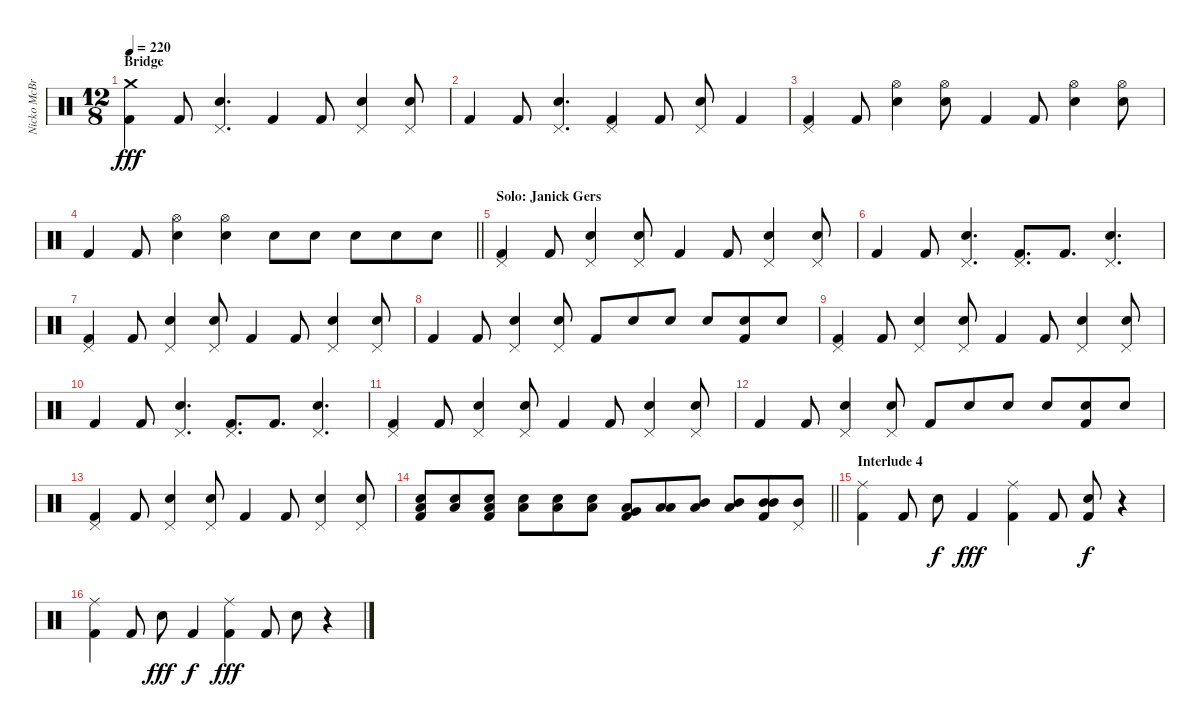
\track ("Nicko McBrain" "Nicko McBr") {instrument percussion}
\staff {score}
\articulation defaults
\ts (12 8)
\section ("" "Bridge")
\tempo 220
\clef neutral
\ks c
("Crash medium (hit)" "Kick (hit) 2").4{dy fff} "Kick (hit) 2".8 ("Snare (hit) 2" "Pedal Hi-Hat (hit)").4{d} "Kick (hit) 2".4 "Kick (hit) 2".8 ("Snare (hit) 2" "Pedal Hi-Hat (hit)").4 ("Snare (hit) 2" "Pedal Hi-Hat (hit)").8 |
"Kick (hit) 2".4 "Kick (hit) 2".8 ("Snare (hit) 2" "Pedal Hi-Hat (hit)").4{d} ("Pedal Hi-Hat (hit)" "Kick (hit) 2").4 "Kick (hit) 2".8 ("Snare (hit) 2" "Pedal Hi-Hat (hit)").8 "Kick (hit) 2".4 |
("Pedal Hi-Hat (hit)" "Kick (hit) 2").4 "Kick (hit) 2".8 ("Snare (hit) 2" "Hi-Hat (open)").4 ("Snare (hit) 2" "Hi-Hat (open)").8 "Kick (hit) 2".4 "Kick (hit) 2".8 ("Snare (hit) 2" "Hi-Hat (open)").4 ("Snare (hit) 2" "Hi-Hat (open)").8 |
\barLineRight lightlight "Kick (hit) 2".4 "Kick (hit) 2".8
("Snare (hit) 2" "Hi-Hat (open)").4 ("Snare (hit) 2" "Hi-Hat (open)").4 "Snare (hit) 2".8 "Snare (hit) 2".8 "Snare (hit) 2".8 "Snare (hit) 2".8 "Snare (hit) 2".8 |
\section ("" "Solo: Janick Gers")
("Pedal Hi-Hat (hit)" "Kick (hit) 2").4 "Kick (hit) 2".8 ("Snare (hit) 2" "Pedal Hi-Hat (hit)").4 ("Snare (hit) 2" "Pedal Hi-Hat (hit)").8 "Kick (hit) 2".4 "Kick (hit) 2".8 ("Snare (hit) 2" "Pedal Hi-Hat (hit)").4 ("Snare (hit) 2" "Pedal Hi-Hat (hit)").8 |
"Kick (hit) 2".4 "Kick (hit) 2".8 ("Snare (hit) 2" "Pedal Hi-Hat (hit)").4{d} ("Pedal Hi-Hat (hit)" "Kick (hit) 2").8{d} "Kick (hit) 2".8{d} ("Snare (hit) 2" "Pedal Hi-Hat (hit)").4{d} |
("Pedal Hi-Hat (hit)" "Kick (hit) 2").4 "Kick (hit) 2".8 ("Snare (hit) 2" "Pedal Hi-Hat (hit)").4 ("Snare (hit) 2" "Pedal Hi-Hat (hit)").8 "Kick (hit) 2".4 "Kick (hit) 2".8 ("Snare (hit) 2" "Pedal Hi-Hat (hit)").4 ("Snare (hit) 2" "Pedal Hi-Hat (hit)").8 |
"Kick (hit) 2".4 "Kick (hit) 2".8 ("Snare (hit) 2" "Pedal Hi-Hat (hit)").4 ("Snare (hit) 2" "Pedal Hi-Hat (hit)").8 "Kick (hit) 2".8 "Snare (hit) 2".8 "Snare (hit) 2".8 "Snare (hit) 2".8 ("Snare (hit) 2" "Kick (hit) 2").8 "Snare (hit) 2".8 |
("Pedal Hi-Hat (hit)" "Kick (hit) 2").4 "Kick (hit) 2".8 ("Snare (hit) 2" "Pedal Hi-Hat (hit)").4 ("Snare (hit) 2" "Pedal Hi-Hat (hit)").8 "Kick (hit) 2".4 "Kick (hit) 2".8 ("Snare (hit) 2" "Pedal Hi-Hat (hit)").4 ("Snare (hit) 2" "Pedal Hi-Hat (hit)").8 |
"Kick (hit) 2".4 "Kick (hit) 2".8 ("Snare (hit) 2" "Pedal Hi-Hat (hit)").4{d} ("Pedal Hi-Hat (hit)" "Kick (hit) 2").8{d} "Kick (hit) 2".8{d} ("Snare (hit) 2" "Pedal Hi-Hat (hit)").4{d} |
("Pedal Hi-Hat (hit)" "Kick (hit) 2").4 "Kick (hit) 2".8 ("Snare (hit) 2" "Pedal Hi-Hat (hit)").4 ("Snare (hit) 2" "Pedal Hi-Hat (hit)").8 "Kick (hit) 2".4 "Kick (hit) 2".8 ("Snare (hit) 2" "Pedal Hi-Hat (hit)").4 ("Snare (hit) 2" "Pedal Hi-Hat (hit)").8 |
"Kick (hit) 2".4 "Kick (hit) 2".8 ("Snare (hit) 2" "Pedal Hi-Hat (hit)").4 ("Snare (hit) 2" "Pedal Hi-Hat (hit)").8 "Kick (hit) 2".8 "Snare (hit) 2".8 "Snare (hit) 2".8 "Snare (hit) 2".8 ("Snare (hit) 2" "Kick (hit) 2").8 "Snare (hit) 2".8 |
("Pedal Hi-Hat (hit)" "Kick (hit) 2").4 "Kick (hit) 2".8 ("Snare (hit) 2" "Pedal Hi-Hat (hit)").4 ("Snare (hit) 2" "Pedal Hi-Hat (hit)").8 "Kick (hit) 2".4 "Kick (hit) 2".8 ("Snare (hit) 2" "Pedal Hi-Hat (hit)").4 ("Snare (hit) 2" "Pedal Hi-Hat (hit)").8 |
\barLineRight lightlight
("Snare (hit) 2" "Low Tom (hit)" "Kick (hit) 2").8 ("Snare (hit) 2" "Low Tom (hit)").8 ("Snare (hit) 2" "Low Tom (hit)" "Kick (hit) 2").8 ("Snare (hit) 2" "Low Tom (hit)").8 ("Snare (hit) 2" "Low Tom (hit)").8 ("Snare (hit) 2" "Low Tom (hit)").8 ("Low Tom (hit)" "Very Low Tom (hit)" "Kick (hit) 2").8 ("Low Tom (hit)" "Low Tom (hit)").8 ("Low Tom (hit)" "Mid Tom (hit)").8 ("Mid Tom (hit)" "Low Tom (hit)").8 ("Mid Tom (hit)" "Mid Tom (hit)" "Kick (hit) 2").8 ("Mid Tom (hit)" "Pedal Hi-Hat (hit)").8 |
\section ("" "Interlude 4")
("Ride (middle)" "Kick (hit) 2").4 "Kick (hit) 2".8 "Snare (hit) 2".8{dy f} "Kick (hit) 2".4{dy fff} ("Ride (middle)" "Kick (hit) 2").4 "Kick (hit) 2".8 ("Snare (hit) 2" "Kick (hit) 2").8{dy f} r.4 |
("Ride (middle)" "Kick (hit) 2").4 "Kick (hit) 2".8 "Snare (hit) 2".8{dy fff} "Kick (hit) 2".4{dy f} ("Ride (middle)" "Kick (hit) 2").4{dy fff} "Kick (hit) 2".8 "Snare (hit) 2".8 r.4
